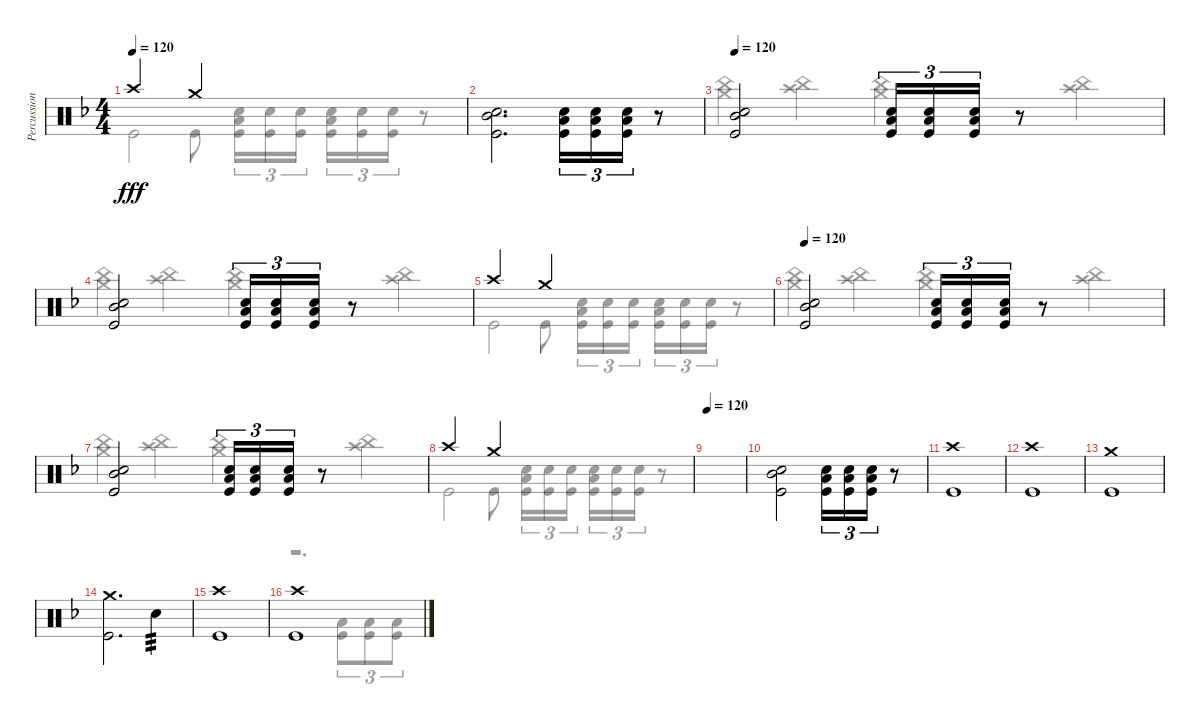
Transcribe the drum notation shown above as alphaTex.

\track ("Percussion" "Percussion") {instrument percussion}
\staff {score}
\articulation defaults
\voice
\ts (4 4)
\tempo 120
\clef neutral
\ks dminor "Crash high (hit)".2{dy fff} "Crash medium (hit)".2
|
("Electric Snare (hit)" "Kick (hit)" "Mid Tom (hit)").2{d} ("Electric Snare (hit)" "Low Floor Tom (hit)" "Kick (hit)").16{tu (3 2)} ("Electric Snare (hit)" "Low Floor Tom (hit)" "Kick (hit)").16{tu (3 2)} ("Electric Snare (hit)" "Low Floor Tom (hit)" "Kick (hit)").16{tu (3 2)} r.8 |
\tempo 120
("Electric Snare (hit)" "Kick (hit)" "Mid Tom (hit)").2 ("Electric Snare (hit)" "Low Floor Tom (hit)" "Kick (hit)").16{tu (3 2)} ("Electric Snare (hit)" "Low Floor Tom (hit)" "Kick (hit)").16{tu (3 2)} ("Electric Snare (hit)" "Low Floor Tom (hit)" "Kick (hit)").16{tu (3 2)} r.8 |
("Electric Snare (hit)" "Kick (hit)" "Mid Tom (hit)").2 ("Electric Snare (hit)" "Low Floor Tom (hit)" "Kick (hit)").16{tu (3 2)} ("Electric Snare (hit)" "Low Floor Tom (hit)" "Kick (hit)").16{tu (3 2)} ("Electric Snare (hit)" "Low Floor Tom (hit)" "Kick (hit)").16{tu (3 2)} r.8 |
"Crash high (hit)".2 "Crash medium (hit)".2 |
\tempo 120
("Electric Snare (hit)" "Kick (hit)" "Mid Tom (hit)").2 ("Electric Snare (hit)" "Low Floor Tom (hit)" "Kick (hit)").16{tu (3 2)} ("Electric Snare (hit)" "Low Floor Tom (hit)" "Kick (hit)").16{tu (3 2)} ("Electric Snare (hit)" "Low Floor Tom (hit)" "Kick (hit)").16{tu (3 2)} r.8 |
("Electric Snare (hit)" "Kick (hit)" "Mid Tom (hit)").2 ("Electric Snare (hit)" "Low Floor Tom (hit)" "Kick (hit)").16{tu (3 2)} ("Electric Snare (hit)" "Low Floor Tom (hit)" "Kick (hit)").16{tu (3 2)} ("Electric Snare (hit)" "Low Floor Tom (hit)" "Kick (hit)").16{tu (3 2)} r.8 |
"Crash high (hit)".2 "Crash medium (hit)".2 |
\tempo 120
|
("Electric Snare (hit)" "Kick (hit)" "Mid Tom (hit)").2 ("Electric Snare (hit)" "Low Floor Tom (hit)" "Kick (hit)").16{tu (3 2)} ("Electric Snare (hit)" "Low Floor Tom (hit)" "Kick (hit)").16{tu (3 2)} ("Electric Snare (hit)" "Low Floor Tom (hit)" "Kick (hit)").16{tu (3 2)} r.8 |
("Crash high (hit)" "Kick (hit)").1 |
("Crash high (hit)" "Kick (hit)").1 |
("Crash medium (hit)" "Kick (hit)").1 |
("Crash medium (hit)" "Kick (hit)").2{d} "Electric Snare (hit)".4{tp 3} |
("Crash high (hit)" "Kick (hit)").1 |
("Crash high (hit)" "Kick (hit)").1
\voice
\clef neutral
\ottava regular
\simile none
\ks dminor "Kick (hit)".2{dy fff} "Kick (hit)".8
("Electric Snare (hit)" "Low Floor Tom (hit)" "Kick (hit)").16{tu (3 2)} ("Electric Snare (hit)" "Kick (hit)").16{tu (3 2)} ("Electric Snare (hit)" "Kick (hit)").16{tu (3 2)} ("Electric Snare (hit)" "Low Floor Tom (hit)" "Kick (hit)").16{tu (3 2)} ("Electric Snare (hit)" "Kick (hit)").16{tu (3 2)} ("Electric Snare (hit)" "Kick (hit)").16{tu (3 2)} r.8 |
|
("Crash medium (hit)" "China (hit)").4 ("Crash high (hit)" "China (hit)").4 ("Crash medium (hit)" "China (hit)").4 ("Crash high (hit)" "China (hit)").4 |
("Crash medium (hit)" "China (hit)").4 ("Crash high (hit)" "China (hit)").4 ("Crash medium (hit)" "China (hit)").4 ("Crash high (hit)" "China (hit)").4 |
"Kick (hit)".2 "Kick (hit)".8 ("Electric Snare (hit)" "Low Floor Tom (hit)" "Kick (hit)").16{tu (3 2)} ("Electric Snare (hit)" "Kick (hit)").16{tu (3 2)} ("Electric Snare (hit)" "Kick (hit)").16{tu (3 2)} ("Electric Snare (hit)" "Low Floor Tom (hit)" "Kick (hit)").16{tu (3 2)} ("Electric Snare (hit)" "Kick (hit)").16{tu (3 2)} ("Electric Snare (hit)" "Kick (hit)").16{tu (3 2)} r.8 |
("Crash medium (hit)" "China (hit)").4 ("Crash high (hit)" "China (hit)").4 ("Crash medium (hit)" "China (hit)").4 ("Crash high (hit)" "China (hit)").4 |
("Crash medium (hit)" "China (hit)").4 ("Crash high (hit)" "China (hit)").4 ("Crash medium (hit)" "China (hit)").4 ("Crash high (hit)" "China (hit)").4 |
"Kick (hit)".2 "Kick (hit)".8 ("Electric Snare (hit)" "Low Floor Tom (hit)" "Kick (hit)").16{tu (3 2)} ("Electric Snare (hit)" "Kick (hit)").16{tu (3 2)} ("Electric Snare (hit)" "Kick (hit)").16{tu (3 2)} ("Electric Snare (hit)" "Low Floor Tom (hit)" "Kick (hit)").16{tu (3 2)} ("Electric Snare (hit)" "Kick (hit)").16{tu (3 2)} ("Electric Snare (hit)" "Kick (hit)").16{tu (3 2)} r.8 |
|
|
|
|
|
|
|
r.2{d} ("Low Tom (hit)" "Kick (hit)").8{tu (3 2)} ("Low Tom (hit)" "Kick (hit)").8{tu (3 2)} ("Low Tom (hit)" "Kick (hit)").8{tu (3 2)}
